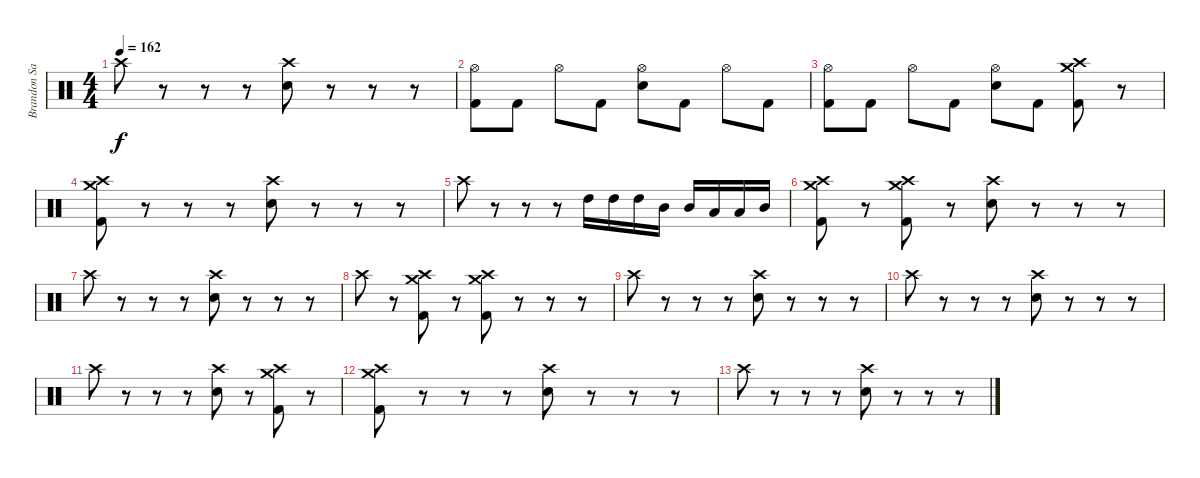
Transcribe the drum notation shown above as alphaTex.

\track ("Brandon Saller" "Brandon Sa") {instrument percussion}
\staff {score}
\articulation defaults
\ts (4 4)
\tempo 162
\clef neutral
\ks c "Crash high (hit)".8{dy f}
r.8 r.8 r.8 ("Crash high (hit)" "Electric Snare (hit)").8 r.8 r.8 r.8 |
("Hi-Hat (open)" "Kick (hit) 2").8 "Kick (hit) 2".8 "Hi-Hat (open)".8 "Kick (hit) 2".8 ("Hi-Hat (open)" "Electric Snare (hit)").8 "Kick (hit) 2".8 "Hi-Hat (open)".8 "Kick (hit) 2".8 |
("Hi-Hat (open)" "Kick (hit) 2").8 "Kick (hit) 2".8 "Hi-Hat (open)".8 "Kick (hit) 2".8 ("Hi-Hat (open)" "Electric Snare (hit)").8 "Kick (hit) 2".8 ("Crash high (hit)" "Crash medium (hit)" "Kick (hit) 2").8 r.8 |
("Crash high (hit)" "Crash medium (hit)" "Kick (hit) 2").8 r.8 r.8 r.8 ("Crash high (hit)" "Electric Snare (hit)").8 r.8 r.8 r.8 |
"Crash high (hit)".8 r.8 r.8 r.8 "High Tom (hit)".16 "High Tom (hit)".16 "High Tom (hit)".16 "Mid Tom (hit)".16 "Mid Tom (hit)".16 "Low Tom (hit)".16 "Low Tom (hit)".16 "Mid Tom (hit)".16 |
("Crash high (hit)" "Crash medium (hit)" "Kick (hit) 2").8 r.8 ("Crash high (hit)" "Crash medium (hit)" "Kick (hit) 2").8 r.8 ("Crash high (hit)" "Electric Snare (hit)").8 r.8 r.8 r.8 |
"Crash high (hit)".8 r.8 r.8 r.8 ("Crash high (hit)" "Electric Snare (hit)").8 r.8 r.8 r.8 |
"Crash high (hit)".8 r.8 ("Crash high (hit)" "Crash medium (hit)" "Kick (hit) 2").8 r.8 ("Crash high (hit)" "Crash medium (hit)" "Kick (hit) 2").8 r.8 r.8 r.8 |
"Crash high (hit)".8 r.8 r.8 r.8 ("Crash high (hit)" "Electric Snare (hit)").8 r.8 r.8 r.8 |
"Crash high (hit)".8 r.8 r.8 r.8 ("Crash high (hit)" "Electric Snare (hit)").8 r.8 r.8 r.8 |
"Crash high (hit)".8 r.8 r.8 r.8 ("Crash high (hit)" "Electric Snare (hit)").8 r.8 ("Crash high (hit)" "Crash medium (hit)" "Kick (hit) 2").8 r.8 |
("Crash high (hit)" "Crash medium (hit)" "Kick (hit) 2").8 r.8 r.8 r.8 ("Crash high (hit)" "Electric Snare (hit)").8 r.8 r.8 r.8 |
"Crash high (hit)".8 r.8 r.8 r.8 ("Crash high (hit)" "Electric Snare (hit)").8 r.8 r.8 r.8
